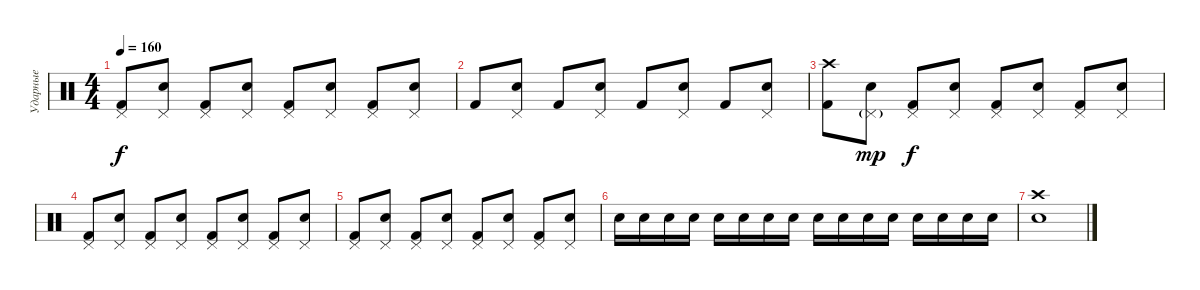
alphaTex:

\track ("Ударные" "Ударные") {instrument percussion}
\staff {score}
\articulation defaults
\ts (4 4)
\tempo 160
\clef neutral
\ks c
("Kick (hit) 2" "Pedal Hi-Hat (hit)").8{dy f} ("Electric Snare (hit)" "Pedal Hi-Hat (hit)").8 ("Kick (hit) 2" "Pedal Hi-Hat (hit)").8 ("Electric Snare (hit)" "Pedal Hi-Hat (hit)").8 ("Kick (hit) 2" "Pedal Hi-Hat (hit)").8 ("Electric Snare (hit)" "Pedal Hi-Hat (hit)").8 ("Kick (hit) 2" "Pedal Hi-Hat (hit)").8 ("Electric Snare (hit)" "Pedal Hi-Hat (hit)").8 |
"Kick (hit) 2".8 ("Electric Snare (hit)" "Pedal Hi-Hat (hit)").8 "Kick (hit) 2".8 ("Electric Snare (hit)" "Pedal Hi-Hat (hit)").8 "Kick (hit) 2".8 ("Electric Snare (hit)" "Pedal Hi-Hat (hit)").8 "Kick (hit) 2".8 ("Electric Snare (hit)" "Pedal Hi-Hat (hit)").8 |
("Kick (hit) 2" "Crash high (hit)").8 ("Electric Snare (hit)" "Pedal Hi-Hat (hit)"{g}).8{dy mp} ("Kick (hit) 2" "Pedal Hi-Hat (hit)").8{dy f} ("Electric Snare (hit)" "Pedal Hi-Hat (hit)").8 ("Kick (hit) 2" "Pedal Hi-Hat (hit)").8 ("Electric Snare (hit)" "Pedal Hi-Hat (hit)").8 ("Kick (hit) 2" "Pedal Hi-Hat (hit)").8 ("Electric Snare (hit)" "Pedal Hi-Hat (hit)").8 |
("Kick (hit) 2" "Pedal Hi-Hat (hit)").8 ("Electric Snare (hit)" "Pedal Hi-Hat (hit)").8 ("Kick (hit) 2" "Pedal Hi-Hat (hit)").8 ("Electric Snare (hit)" "Pedal Hi-Hat (hit)").8 ("Kick (hit) 2" "Pedal Hi-Hat (hit)").8 ("Electric Snare (hit)" "Pedal Hi-Hat (hit)").8 ("Kick (hit) 2" "Pedal Hi-Hat (hit)").8 ("Electric Snare (hit)" "Pedal Hi-Hat (hit)").8 |
("Kick (hit) 2" "Pedal Hi-Hat (hit)").8 ("Electric Snare (hit)" "Pedal Hi-Hat (hit)").8 ("Kick (hit) 2" "Pedal Hi-Hat (hit)").8 ("Electric Snare (hit)" "Pedal Hi-Hat (hit)").8 ("Kick (hit) 2" "Pedal Hi-Hat (hit)").8 ("Electric Snare (hit)" "Pedal Hi-Hat (hit)").8 ("Kick (hit) 2" "Pedal Hi-Hat (hit)").8 ("Electric Snare (hit)" "Pedal Hi-Hat (hit)").8 |
"Electric Snare (hit)".16 "Electric Snare (hit)".16 "Electric Snare (hit)".16 "Electric Snare (hit)".16 "Electric Snare (hit)".16 "Electric Snare (hit)".16 "Electric Snare (hit)".16 "Electric Snare (hit)".16 "Electric Snare (hit)".16 "Electric Snare (hit)".16 "Electric Snare (hit)".16 "Electric Snare (hit)".16 "Electric Snare (hit)".16 "Electric Snare (hit)".16 "Electric Snare (hit)".16 "Electric Snare (hit)".16 |
("Electric Snare (hit)" "Crash high (hit)").1
